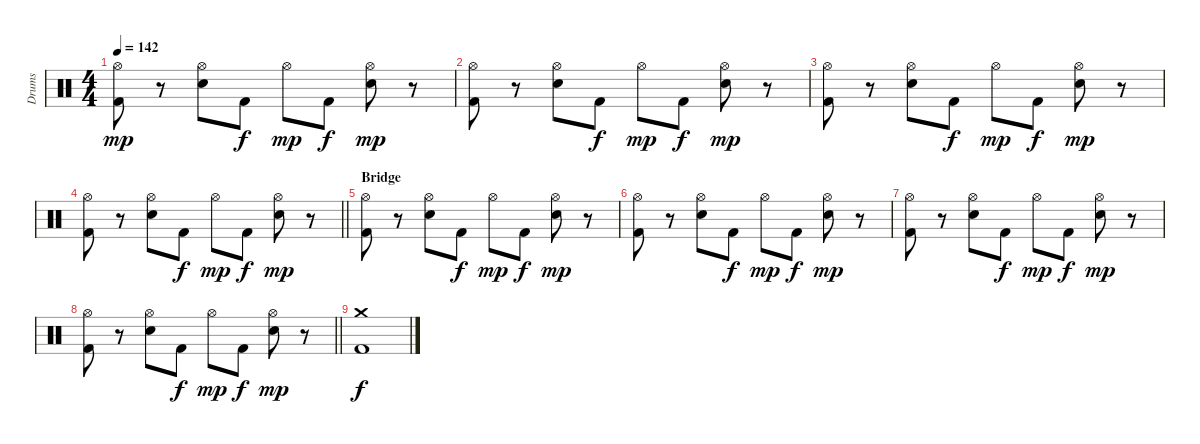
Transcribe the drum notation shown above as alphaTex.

\track ("Drums" "Drums") {instrument percussion}
\staff {score}
\articulation defaults
\ts (4 4)
\tempo 142
\clef neutral
\ks c
("Hi-Hat (open)" "Kick (hit) 2").8{dy mp} r.8 ("Hi-Hat (open)" "Snare (hit) 2").8 "Kick (hit) 2".8{dy f} "Hi-Hat (open)".8{dy mp} "Kick (hit) 2".8{dy f} ("Hi-Hat (open)" "Snare (hit) 2").8{dy mp} r.8 |
("Hi-Hat (open)" "Kick (hit) 2").8 r.8 ("Hi-Hat (open)" "Snare (hit) 2").8 "Kick (hit) 2".8{dy f} "Hi-Hat (open)".8{dy mp} "Kick (hit) 2".8{dy f} ("Hi-Hat (open)" "Snare (hit) 2").8{dy mp} r.8 |
("Hi-Hat (open)" "Kick (hit) 2").8 r.8 ("Hi-Hat (open)" "Snare (hit) 2").8 "Kick (hit) 2".8{dy f} "Hi-Hat (open)".8{dy mp} "Kick (hit) 2".8{dy f} ("Hi-Hat (open)" "Snare (hit) 2").8{dy mp} r.8 |
\barLineRight lightlight
("Hi-Hat (open)" "Kick (hit) 2").8 r.8 ("Hi-Hat (open)" "Snare (hit) 2").8 "Kick (hit) 2".8{dy f} "Hi-Hat (open)".8{dy mp} "Kick (hit) 2".8{dy f} ("Hi-Hat (open)" "Snare (hit) 2").8{dy mp} r.8 |
\section ("" "Bridge")
("Hi-Hat (open)" "Kick (hit) 2").8 r.8 ("Hi-Hat (open)" "Snare (hit) 2").8 "Kick (hit) 2".8{dy f} "Hi-Hat (open)".8{dy mp} "Kick (hit) 2".8{dy f} ("Hi-Hat (open)" "Snare (hit) 2").8{dy mp} r.8 |
("Hi-Hat (open)" "Kick (hit) 2").8 r.8 ("Hi-Hat (open)" "Snare (hit) 2").8 "Kick (hit) 2".8{dy f} "Hi-Hat (open)".8{dy mp} "Kick (hit) 2".8{dy f} ("Hi-Hat (open)" "Snare (hit) 2").8{dy mp} r.8 |
("Hi-Hat (open)" "Kick (hit) 2").8 r.8 ("Hi-Hat (open)" "Snare (hit) 2").8 "Kick (hit) 2".8{dy f} "Hi-Hat (open)".8{dy mp} "Kick (hit) 2".8{dy f} ("Hi-Hat (open)" "Snare (hit) 2").8{dy mp} r.8 |
\barLineRight lightlight
("Hi-Hat (open)" "Kick (hit) 2").8 r.8 ("Hi-Hat (open)" "Snare (hit) 2").8 "Kick (hit) 2".8{dy f} "Hi-Hat (open)".8{dy mp} "Kick (hit) 2".8{dy f} ("Hi-Hat (open)" "Snare (hit) 2").8{dy mp} r.8 |
("Crash medium (hit)" "Kick (hit) 2").1{dy f}
